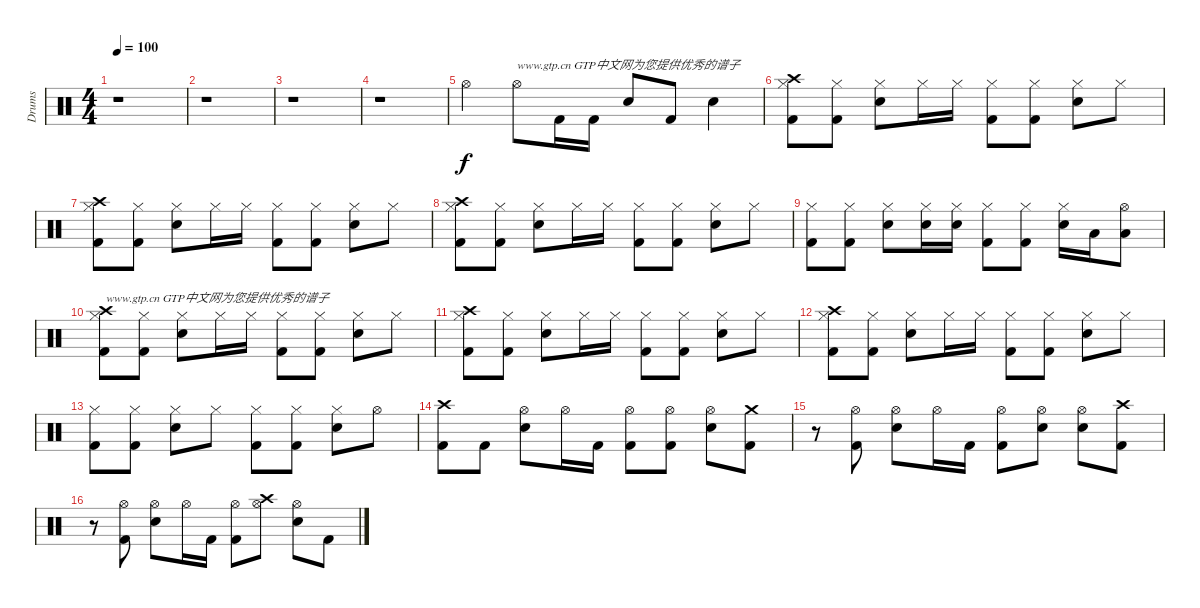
\track ("Drums" "Drums") {instrument percussion}
\staff {score}
\articulation defaults
\ts (4 4)
\tempo 100
\clef neutral
\ks c
r.1{dy f} |
r.1 |
r.1 |
r.1 |
"Hi-Hat (open)".4 "Hi-Hat (open)".8{txt "www.gtp.cn GTP中文网为您提供优秀的谱子"} "Kick (hit) 2".16 "Kick (hit) 2".16 "Snare (hit) 2".8 "Kick (hit) 2".8 "Snare (hit) 2".4 |
("Kick (hit) 2" "Hi-Hat (closed)" "Crash high (hit)").8 ("Kick (hit) 2" "Hi-Hat (closed)").8 ("Hi-Hat (closed)" "Snare (hit) 2").8 "Hi-Hat (closed)".16 "Hi-Hat (closed)".16 ("Kick (hit) 2" "Hi-Hat (closed)").8 ("Kick (hit) 2" "Hi-Hat (closed)").8 ("Hi-Hat (closed)" "Snare (hit) 2").8 "Hi-Hat (closed)".8 |
("Kick (hit) 2" "Hi-Hat (closed)" "Crash high (hit)").8 ("Kick (hit) 2" "Hi-Hat (closed)").8 ("Hi-Hat (closed)" "Snare (hit) 2").8 "Hi-Hat (closed)".16 "Hi-Hat (closed)".16 ("Kick (hit) 2" "Hi-Hat (closed)").8 ("Kick (hit) 2" "Hi-Hat (closed)").8 ("Hi-Hat (closed)" "Snare (hit) 2").8 "Hi-Hat (closed)".8 |
("Kick (hit) 2" "Hi-Hat (closed)" "Crash high (hit)").8 ("Kick (hit) 2" "Hi-Hat (closed)").8 ("Hi-Hat (closed)" "Snare (hit) 2").8 "Hi-Hat (closed)".16 "Hi-Hat (closed)".16 ("Kick (hit) 2" "Hi-Hat (closed)").8 ("Kick (hit) 2" "Hi-Hat (closed)").8 ("Hi-Hat (closed)" "Snare (hit) 2").8 "Hi-Hat (closed)".8 |
("Kick (hit) 2" "Hi-Hat (closed)").8 ("Kick (hit) 2" "Hi-Hat (closed)").8 ("Hi-Hat (closed)" "Snare (hit) 2").8 ("Hi-Hat (closed)" "Snare (hit) 2").16 ("Snare (hit)" "Hi-Hat (closed)").16 ("Kick (hit) 2" "Hi-Hat (closed)").8 ("Kick (hit) 2" "Hi-Hat (closed)").8 ("Hi-Hat (closed)" "Snare (hit) 2").16 "Low Tom (hit)".16 ("Hi-Hat (open)" "Low Floor Tom (hit)").8 |
("Kick (hit) 2" "Hi-Hat (closed)" "Crash high (hit)").8{txt "www.gtp.cn GTP中文网为您提供优秀的谱子"} ("Kick (hit) 2" "Hi-Hat (closed)").8 ("Hi-Hat (closed)" "Snare (hit) 2").8 "Hi-Hat (closed)".16 "Hi-Hat (closed)".16 ("Kick (hit) 2" "Hi-Hat (closed)").8 ("Kick (hit) 2" "Hi-Hat (closed)").8 ("Hi-Hat (closed)" "Snare (hit) 2").8 "Hi-Hat (closed)".8 |
("Kick (hit) 2" "Hi-Hat (closed)" "Crash high (hit)").8 ("Kick (hit) 2" "Hi-Hat (closed)").8 ("Hi-Hat (closed)" "Snare (hit) 2").8 "Hi-Hat (closed)".16 "Hi-Hat (closed)".16 ("Kick (hit) 2" "Hi-Hat (closed)").8 ("Kick (hit) 2" "Hi-Hat (closed)").8 ("Hi-Hat (closed)" "Snare (hit) 2").8 "Hi-Hat (closed)".8 |
("Kick (hit) 2" "Hi-Hat (closed)" "Crash high (hit)").8 ("Kick (hit) 2" "Hi-Hat (closed)").8 ("Hi-Hat (closed)" "Snare (hit) 2").8 "Hi-Hat (closed)".16 "Hi-Hat (closed)".16 ("Kick (hit) 2" "Hi-Hat (closed)").8 ("Kick (hit) 2" "Hi-Hat (closed)").8 ("Hi-Hat (closed)" "Snare (hit) 2").8 "Hi-Hat (closed)".8 |
("Kick (hit) 2" "Hi-Hat (closed)").8 ("Kick (hit) 2" "Hi-Hat (closed)").8 ("Hi-Hat (closed)" "Snare (hit) 2").8 "Hi-Hat (closed)".8 ("Kick (hit) 2" "Hi-Hat (closed)").8 ("Kick (hit) 2" "Hi-Hat (closed)").8 ("Hi-Hat (closed)" "Snare (hit) 2").8 "Hi-Hat (open)".8 |
("Kick (hit) 2" "Crash high (hit)").8 "Kick (hit) 2".8 ("Hi-Hat (open)" "Snare (hit) 2").8 "Hi-Hat (open)".16 "Kick (hit) 2".16 ("Kick (hit) 2" "Hi-Hat (open)").8 ("Kick (hit) 2" "Hi-Hat (open)").8 ("Hi-Hat (open)" "Snare (hit) 2").8 ("Kick (hit) 2" "Crash medium (hit)").8 |
r.8 ("Kick (hit) 2" "Hi-Hat (open)").8 ("Hi-Hat (open)" "Snare (hit) 2").8 "Hi-Hat (open)".16 "Kick (hit) 2".16 ("Kick (hit) 2" "Hi-Hat (open)").8 ("Hi-Hat (open)" "Snare (hit) 2").8 ("Hi-Hat (open)" "Snare (hit) 2").8 ("Kick (hit) 2" "Crash high (hit)").8 |
r.8 ("Kick (hit) 2" "Hi-Hat (open)").8 ("Hi-Hat (open)" "Snare (hit) 2").8 "Hi-Hat (open)".16 "Kick (hit) 2".16 ("Kick (hit) 2" "Hi-Hat (open)").8 ("Hi-Hat (open)" "Crash high (hit)").8 ("Hi-Hat (open)" "Snare (hit) 2").8 "Kick (hit) 2".8
